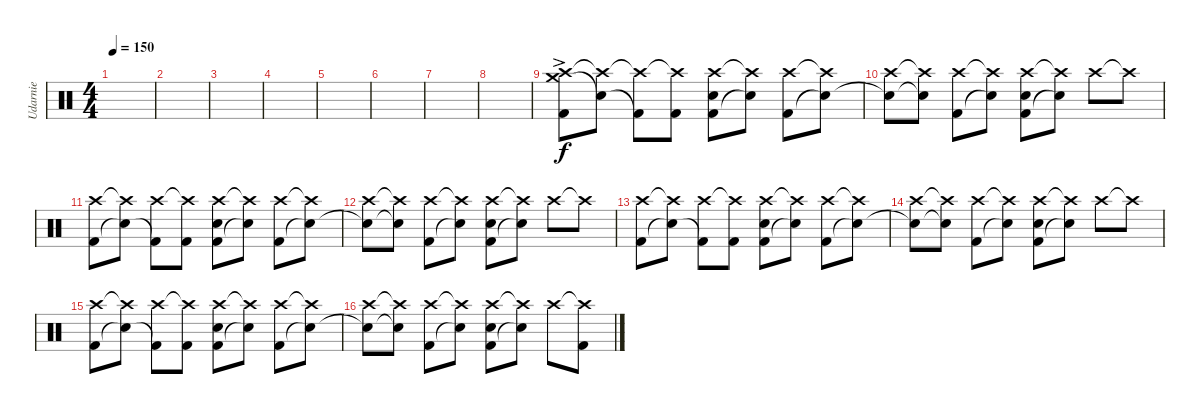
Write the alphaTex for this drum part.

\track ("Udarnie" "Udarnie") {instrument percussion}
\staff {score}
\articulation defaults
\ts (4 4)
\tempo 150
\clef neutral
\ks c
|
|
|
|
|
|
|
|
("Crash high (hit)"{ac} "Crash medium (hit)"{ac} "Kick (hit) 2").8 ("Crash high (hit)"{t} "Snare (hit)"{t}).8{dy f} ("Crash high (hit)"{t} "Kick (hit) 2"{t}).8 ("Crash high (hit)"{t} "Kick (hit) 2").8 ("Crash high (hit)" "Kick (hit) 2" "Snare (hit) 2").8 ("Crash high (hit)"{t} "Snare (hit)"{t}).8 ("Crash high (hit)" "Kick (hit) 2").8 ("Crash high (hit)"{t} "Snare (hit) 2"{t}).8 |
("Crash high (hit)" "Snare (hit)"{t}).8 ("Crash high (hit)"{t} "Snare (hit)"{t}).8 ("Crash high (hit)" "Kick (hit) 2").8 ("Crash high (hit)"{t} "Snare (hit)"{t}).8 ("Crash high (hit)" "Kick (hit) 2" "Snare (hit) 2").8 ("Crash high (hit)"{t} "Snare (hit)"{t}).8 "Crash high (hit)".8 "Crash high (hit)"{t}.8 |
("Crash high (hit)" "Kick (hit) 2").8 ("Crash high (hit)"{t} "Snare (hit)"{t}).8 ("Crash high (hit)" "Kick (hit) 2"{t}).8 ("Crash high (hit)"{t} "Kick (hit) 2").8 ("Crash high (hit)" "Kick (hit) 2" "Snare (hit) 2").8 ("Crash high (hit)"{t} "Snare (hit)"{t}).8 ("Crash high (hit)" "Kick (hit) 2").8 ("Crash high (hit)"{t} "Snare (hit) 2"{t}).8 |
("Crash high (hit)" "Snare (hit)"{t}).8 ("Crash high (hit)"{t} "Snare (hit)"{t}).8 ("Crash high (hit)" "Kick (hit) 2").8 ("Crash high (hit)"{t} "Snare (hit)"{t}).8 ("Crash high (hit)" "Kick (hit) 2" "Snare (hit) 2").8 ("Crash high (hit)"{t} "Snare (hit)"{t}).8 "Crash high (hit)".8 "Crash high (hit)"{t}.8 |
("Crash high (hit)" "Kick (hit) 2").8 ("Crash high (hit)"{t} "Snare (hit)"{t}).8 ("Crash high (hit)" "Kick (hit) 2"{t}).8 ("Crash high (hit)"{t} "Kick (hit) 2").8 ("Crash high (hit)" "Kick (hit) 2" "Snare (hit) 2").8 ("Crash high (hit)"{t} "Snare (hit)"{t}).8 ("Crash high (hit)" "Kick (hit) 2").8 ("Crash high (hit)"{t} "Snare (hit) 2"{t}).8 |
("Crash high (hit)" "Snare (hit)"{t}).8 ("Crash high (hit)"{t} "Snare (hit)"{t}).8 ("Crash high (hit)" "Kick (hit) 2").8 ("Crash high (hit)"{t} "Snare (hit)"{t}).8 ("Crash high (hit)" "Kick (hit) 2" "Snare (hit) 2").8 ("Crash high (hit)"{t} "Snare (hit)"{t}).8 "Crash high (hit)".8 "Crash high (hit)"{t}.8 |
("Crash high (hit)" "Kick (hit) 2").8 ("Crash high (hit)"{t} "Snare (hit)"{t}).8 ("Crash high (hit)" "Kick (hit) 2"{t}).8 ("Crash high (hit)"{t} "Kick (hit) 2").8 ("Crash high (hit)" "Kick (hit) 2" "Snare (hit) 2").8 ("Crash high (hit)"{t} "Snare (hit)"{t}).8 ("Crash high (hit)" "Kick (hit) 2").8 ("Crash high (hit)"{t} "Snare (hit) 2"{t}).8 |
("Crash high (hit)" "Snare (hit)"{t}).8 ("Crash high (hit)"{t} "Snare (hit)"{t}).8 ("Crash high (hit)" "Kick (hit) 2").8 ("Crash high (hit)"{t} "Snare (hit)"{t}).8 ("Crash high (hit)" "Kick (hit) 2" "Snare (hit) 2").8 ("Crash high (hit)"{t} "Snare (hit)"{t}).8 "Crash high (hit)".8 ("Crash high (hit)"{t} "Kick (hit) 2").8
